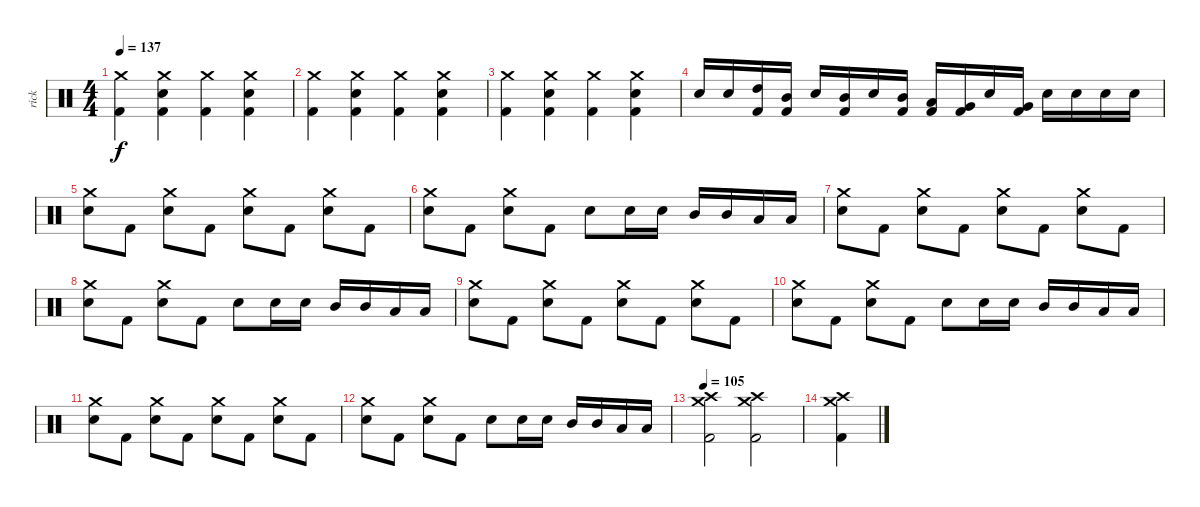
\track ("rick" "rick") {instrument percussion}
\staff {score}
\articulation defaults
\ts (4 4)
\tempo 137
\clef neutral
\ks c
("Crash medium (hit)" "Kick (hit) 2").4{dy f} ("Crash medium (hit)" "Electric Snare (hit)" "Kick (hit) 2").4 ("Crash medium (hit)" "Kick (hit) 2").4 ("Crash medium (hit)" "Electric Snare (hit)" "Kick (hit) 2").4 |
("Crash medium (hit)" "Kick (hit) 2").4 ("Crash medium (hit)" "Electric Snare (hit)" "Kick (hit) 2").4 ("Crash medium (hit)" "Kick (hit) 2").4 ("Crash medium (hit)" "Electric Snare (hit)" "Kick (hit) 2").4 |
("Crash medium (hit)" "Kick (hit) 2").4 ("Crash medium (hit)" "Electric Snare (hit)" "Kick (hit) 2").4 ("Crash medium (hit)" "Kick (hit) 2").4 ("Crash medium (hit)" "Electric Snare (hit)" "Kick (hit) 2").4 |
"Electric Snare (hit)".16 "Electric Snare (hit)".16 ("High Tom (hit)" "Kick (hit) 2").16 ("Mid Tom (hit)" "Kick (hit) 2").16 "Electric Snare (hit)".16 ("Mid Tom (hit)" "Kick (hit) 2").16 "Electric Snare (hit)".16 ("Mid Tom (hit)" "Kick (hit) 2").16 ("Low Tom (hit)" "Kick (hit) 2").16 ("Very Low Tom (hit)" "Kick (hit) 2").16 "Electric Snare (hit)".16 ("Very Low Tom (hit)" "Kick (hit) 2").16 "Electric Snare (hit)".16 "Electric Snare (hit)".16 "Electric Snare (hit)".16 "Electric Snare (hit)".16 |
("Crash medium (hit)" "Electric Snare (hit)").8 "Kick (hit) 2".8 ("Crash medium (hit)" "Electric Snare (hit)").8 "Kick (hit) 2".8 ("Crash medium (hit)" "Electric Snare (hit)").8 "Kick (hit) 2".8 ("Crash medium (hit)" "Electric Snare (hit)").8 "Kick (hit) 2".8 |
("Crash medium (hit)" "Electric Snare (hit)").8 "Kick (hit) 2".8 ("Crash medium (hit)" "Electric Snare (hit)").8 "Kick (hit) 2".8 "Electric Snare (hit)".8 "Electric Snare (hit)".16 "Electric Snare (hit)".16 "Mid Tom (hit)".16 "Mid Tom (hit)".16 "Low Tom (hit)".16 "Low Tom (hit)".16 |
("Crash medium (hit)" "Electric Snare (hit)").8 "Kick (hit) 2".8 ("Crash medium (hit)" "Electric Snare (hit)").8 "Kick (hit) 2".8 ("Crash medium (hit)" "Electric Snare (hit)").8 "Kick (hit) 2".8 ("Crash medium (hit)" "Electric Snare (hit)").8 "Kick (hit) 2".8 |
("Crash medium (hit)" "Electric Snare (hit)").8 "Kick (hit) 2".8 ("Crash medium (hit)" "Electric Snare (hit)").8 "Kick (hit) 2".8 "Electric Snare (hit)".8 "Electric Snare (hit)".16 "Electric Snare (hit)".16 "Mid Tom (hit)".16 "Mid Tom (hit)".16 "Low Tom (hit)".16 "Low Tom (hit)".16 |
("Crash medium (hit)" "Electric Snare (hit)").8 "Kick (hit) 2".8 ("Crash medium (hit)" "Electric Snare (hit)").8 "Kick (hit) 2".8 ("Crash medium (hit)" "Electric Snare (hit)").8 "Kick (hit) 2".8 ("Crash medium (hit)" "Electric Snare (hit)").8 "Kick (hit) 2".8 |
("Crash medium (hit)" "Electric Snare (hit)").8 "Kick (hit) 2".8 ("Crash medium (hit)" "Electric Snare (hit)").8 "Kick (hit) 2".8 "Electric Snare (hit)".8 "Electric Snare (hit)".16 "Electric Snare (hit)".16 "Mid Tom (hit)".16 "Mid Tom (hit)".16 "Low Tom (hit)".16 "Low Tom (hit)".16 |
("Crash medium (hit)" "Electric Snare (hit)").8 "Kick (hit) 2".8 ("Crash medium (hit)" "Electric Snare (hit)").8 "Kick (hit) 2".8 ("Crash medium (hit)" "Electric Snare (hit)").8 "Kick (hit) 2".8 ("Crash medium (hit)" "Electric Snare (hit)").8 "Kick (hit) 2".8 |
("Crash medium (hit)" "Electric Snare (hit)").8 "Kick (hit) 2".8 ("Crash medium (hit)" "Electric Snare (hit)").8 "Kick (hit) 2".8 "Electric Snare (hit)".8 "Electric Snare (hit)".16 "Electric Snare (hit)".16 "Mid Tom (hit)".16 "Mid Tom (hit)".16 "Low Tom (hit)".16 "Low Tom (hit)".16 |
\tempo 105
("Crash medium (hit)" "Crash high (hit)" "Kick (hit) 2").2 ("Crash medium (hit)" "Crash high (hit)" "Kick (hit) 2").2 |
("Crash medium (hit)" "Crash high (hit)" "Kick (hit) 2").4
